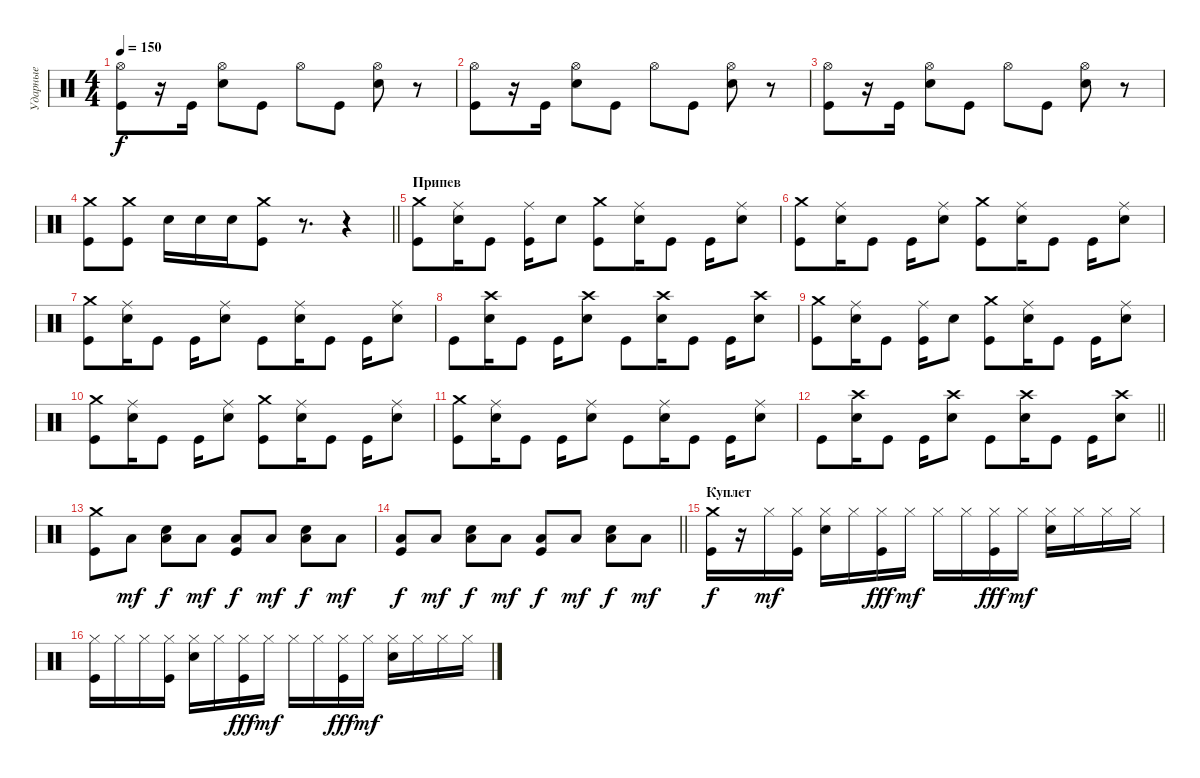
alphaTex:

\track ("Ударные" "Ударные") {instrument percussion}
\staff {score}
\articulation defaults
\ts (4 4)
\tempo 150
\clef neutral
\ks c
("Hi-Hat (open)" "Kick (hit)").8{dy f} r.16 "Kick (hit)".16 ("Hi-Hat (open)" "Electric Snare (hit)").8 "Kick (hit)".8 "Hi-Hat (open)".8 "Kick (hit)".8 ("Hi-Hat (open)" "Electric Snare (hit)").8 r.8 |
("Hi-Hat (open)" "Kick (hit)").8 r.16 "Kick (hit)".16 ("Hi-Hat (open)" "Electric Snare (hit)").8 "Kick (hit)".8 "Hi-Hat (open)".8 "Kick (hit)".8 ("Hi-Hat (open)" "Electric Snare (hit)").8 r.8 |
("Hi-Hat (open)" "Kick (hit)").8 r.16 "Kick (hit)".16 ("Hi-Hat (open)" "Electric Snare (hit)").8 "Kick (hit)".8 "Hi-Hat (open)".8 "Kick (hit)".8 ("Hi-Hat (open)" "Electric Snare (hit)").8 r.8 |
\barLineRight lightlight
("Crash medium (hit)" "Kick (hit)").8 ("Crash medium (hit)" "Kick (hit)").8 "Electric Snare (hit)".16 "Electric Snare (hit)".16 "Electric Snare (hit)".16 ("Crash medium (hit)" "Kick (hit)").8 r.8{d} r.4 |
\section ("" "Припев")
("Crash medium (hit)" "Kick (hit)").8 ("Ride (middle)" "Electric Snare (hit)").16 "Kick (hit)".8 ("Ride (middle)" "Kick (hit)").16 "Electric Snare (hit)".8 ("Crash medium (hit)" "Kick (hit)").8 ("Ride (middle)" "Electric Snare (hit)").16 "Kick (hit)".8 "Kick (hit)".16 ("Ride (middle)" "Electric Snare (hit)").8 |
("Crash medium (hit)" "Kick (hit)").8 ("Ride (middle)" "Electric Snare (hit)").16 "Kick (hit)".8 "Kick (hit)".16 ("Ride (middle)" "Electric Snare (hit)").8 ("Crash medium (hit)" "Kick (hit)").8 ("Ride (middle)" "Electric Snare (hit)").16 "Kick (hit)".8 "Kick (hit)".16 ("Ride (middle)" "Electric Snare (hit)").8 |
("Crash medium (hit)" "Kick (hit)").8 ("Ride (middle)" "Electric Snare (hit)").16 "Kick (hit)".8 "Kick (hit)".16 ("Ride (middle)" "Electric Snare (hit)").8 "Kick (hit)".8 ("Ride (middle)" "Electric Snare (hit)").16 "Kick (hit)".8 "Kick (hit)".16 ("Ride (middle)" "Electric Snare (hit)").8 |
"Kick (hit)".8 ("Crash high (hit)" "Electric Snare (hit)").16 "Kick (hit)".8 "Kick (hit)".16 ("Crash high (hit)" "Electric Snare (hit)").8 "Kick (hit)".8 ("Crash high (hit)" "Electric Snare (hit)").16 "Kick (hit)".8 "Kick (hit)".16 ("Crash high (hit)" "Electric Snare (hit)").8 |
("Crash medium (hit)" "Kick (hit)").8 ("Ride (middle)" "Electric Snare (hit)").16 "Kick (hit)".8 ("Ride (middle)" "Kick (hit)").16 "Electric Snare (hit)".8 ("Crash medium (hit)" "Kick (hit)").8 ("Ride (middle)" "Electric Snare (hit)").16 "Kick (hit)".8 "Kick (hit)".16 ("Ride (middle)" "Electric Snare (hit)").8 |
("Crash medium (hit)" "Kick (hit)").8 ("Ride (middle)" "Electric Snare (hit)").16 "Kick (hit)".8 "Kick (hit)".16 ("Ride (middle)" "Electric Snare (hit)").8 ("Crash medium (hit)" "Kick (hit)").8 ("Ride (middle)" "Electric Snare (hit)").16 "Kick (hit)".8 "Kick (hit)".16 ("Ride (middle)" "Electric Snare (hit)").8 |
("Crash medium (hit)" "Kick (hit)").8 ("Ride (middle)" "Electric Snare (hit)").16 "Kick (hit)".8 "Kick (hit)".16 ("Ride (middle)" "Electric Snare (hit)").8 "Kick (hit)".8 ("Ride (middle)" "Electric Snare (hit)").16 "Kick (hit)".8 "Kick (hit)".16 ("Ride (middle)" "Electric Snare (hit)").8 |
\barLineRight lightlight "Kick (hit)".8
("Crash high (hit)" "Electric Snare (hit)").16 "Kick (hit)".8 "Kick (hit)".16 ("Crash high (hit)" "Electric Snare (hit)").8 "Kick (hit)".8 ("Crash high (hit)" "Electric Snare (hit)").16 "Kick (hit)".8 "Kick (hit)".16 ("Crash high (hit)" "Electric Snare (hit)").8 |
\section ("" " ")
("Crash medium (hit)" "Kick (hit)").8 "Low Tom (hit)".8{dy mf} ("Low Tom (hit)" "Electric Snare (hit)").8{dy f} "Low Tom (hit)".8{dy mf} ("Low Tom (hit)" "Kick (hit)").8{dy f} "Low Tom (hit)".8{dy mf} ("Low Tom (hit)" "Electric Snare (hit)").8{dy f} "Low Tom (hit)".8{dy mf} |
\barLineRight lightlight
("Low Tom (hit)" "Kick (hit)").8{dy f} "Low Tom (hit)".8{dy mf} ("Low Tom (hit)" "Electric Snare (hit)").8{dy f} "Low Tom (hit)".8{dy mf} ("Low Tom (hit)" "Kick (hit)").8{dy f} "Low Tom (hit)".8{dy mf} ("Low Tom (hit)" "Electric Snare (hit)").8{dy f} "Low Tom (hit)".8{dy mf} |
\section ("" "Куплет")
("Crash medium (hit)" "Kick (hit)").16{dy f} r.16 "Hi-Hat (closed)".16{dy mf} ("Hi-Hat (closed)" "Kick (hit)").16 ("Hi-Hat (closed)" "Electric Snare (hit)").16 "Hi-Hat (closed)".16 ("Hi-Hat (closed)" "Kick (hit)").16{dy fff} "Hi-Hat (closed)".16{dy mf} "Hi-Hat (closed)".16 "Hi-Hat (closed)".16 ("Hi-Hat (closed)" "Kick (hit)").16{dy fff} "Hi-Hat (closed)".16{dy mf} ("Hi-Hat (closed)" "Electric Snare (hit)").16 "Hi-Hat (closed)".16 "Hi-Hat (closed)".16 "Hi-Hat (closed)".16 |
("Hi-Hat (closed)" "Kick (hit)").16 "Hi-Hat (closed)".16 "Hi-Hat (closed)".16 ("Hi-Hat (closed)" "Kick (hit)").16 ("Hi-Hat (closed)" "Electric Snare (hit)").16 "Hi-Hat (closed)".16 ("Hi-Hat (closed)" "Kick (hit)").16{dy fff} "Hi-Hat (closed)".16{dy mf} "Hi-Hat (closed)".16 "Hi-Hat (closed)".16 ("Hi-Hat (closed)" "Kick (hit)").16{dy fff} "Hi-Hat (closed)".16{dy mf} ("Hi-Hat (closed)" "Electric Snare (hit)").16 "Hi-Hat (closed)".16 "Hi-Hat (closed)".16 "Hi-Hat (closed)".16
